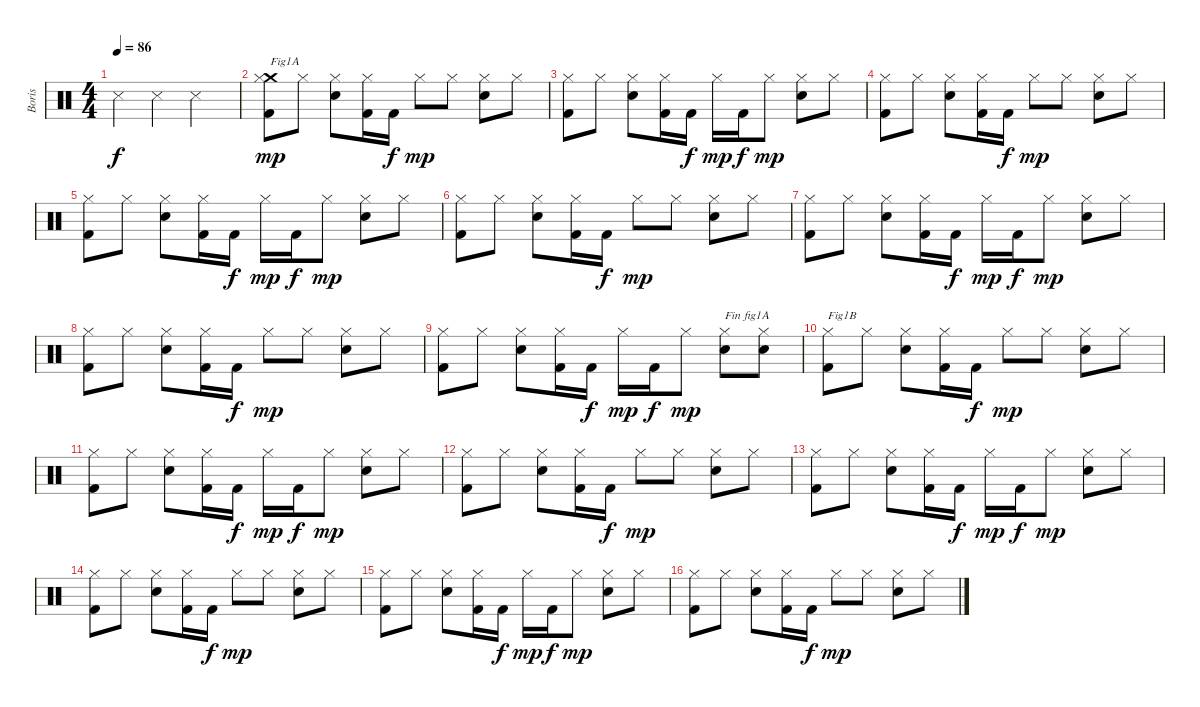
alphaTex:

\track ("Boris" "Boris") {instrument percussion}
\staff {score}
\articulation defaults
\ts (4 4)
\tempo 86
\clef neutral
\ks c "Metronome (hit)".4{dy f} "Metronome (hit)".4 "Metronome (hit)".2
|
("Kick (hit) 2" "Crash medium (hit)" "Hi-Hat (closed)").8{txt "Fig1A" dy mp} "Hi-Hat (closed)".8 ("Electric Snare (hit)" "Hi-Hat (closed)").8 ("Kick (hit) 2" "Hi-Hat (closed)").16 "Kick (hit) 2".16{dy f} "Hi-Hat (closed)".8{dy mp} "Hi-Hat (closed)".8 ("Electric Snare (hit)" "Hi-Hat (closed)").8 "Hi-Hat (closed)".8 |
("Kick (hit) 2" "Hi-Hat (closed)").8 "Hi-Hat (closed)".8 ("Electric Snare (hit)" "Hi-Hat (closed)").8 ("Kick (hit) 2" "Hi-Hat (closed)").16 "Kick (hit) 2".16{dy f} "Hi-Hat (closed)".16{dy mp} "Kick (hit) 2".16{dy f} "Hi-Hat (closed)".8{dy mp} ("Electric Snare (hit)" "Hi-Hat (closed)").8 "Hi-Hat (closed)".8 |
("Kick (hit) 2" "Hi-Hat (closed)").8 "Hi-Hat (closed)".8 ("Electric Snare (hit)" "Hi-Hat (closed)").8 ("Kick (hit) 2" "Hi-Hat (closed)").16 "Kick (hit) 2".16{dy f} "Hi-Hat (closed)".8{dy mp} "Hi-Hat (closed)".8 ("Electric Snare (hit)" "Hi-Hat (closed)").8 "Hi-Hat (closed)".8 |
("Kick (hit) 2" "Hi-Hat (closed)").8 "Hi-Hat (closed)".8 ("Electric Snare (hit)" "Hi-Hat (closed)").8 ("Kick (hit) 2" "Hi-Hat (closed)").16 "Kick (hit) 2".16{dy f} "Hi-Hat (closed)".16{dy mp} "Kick (hit) 2".16{dy f} "Hi-Hat (closed)".8{dy mp} ("Electric Snare (hit)" "Hi-Hat (closed)").8 "Hi-Hat (closed)".8 |
("Kick (hit) 2" "Hi-Hat (closed)").8 "Hi-Hat (closed)".8 ("Electric Snare (hit)" "Hi-Hat (closed)").8 ("Kick (hit) 2" "Hi-Hat (closed)").16 "Kick (hit) 2".16{dy f} "Hi-Hat (closed)".8{dy mp} "Hi-Hat (closed)".8 ("Electric Snare (hit)" "Hi-Hat (closed)").8 "Hi-Hat (closed)".8 |
("Kick (hit) 2" "Hi-Hat (closed)").8 "Hi-Hat (closed)".8 ("Electric Snare (hit)" "Hi-Hat (closed)").8 ("Kick (hit) 2" "Hi-Hat (closed)").16 "Kick (hit) 2".16{dy f} "Hi-Hat (closed)".16{dy mp} "Kick (hit) 2".16{dy f} "Hi-Hat (closed)".8{dy mp} ("Electric Snare (hit)" "Hi-Hat (closed)").8 "Hi-Hat (closed)".8 |
("Kick (hit) 2" "Hi-Hat (closed)").8 "Hi-Hat (closed)".8 ("Electric Snare (hit)" "Hi-Hat (closed)").8 ("Kick (hit) 2" "Hi-Hat (closed)").16 "Kick (hit) 2".16{dy f} "Hi-Hat (closed)".8{dy mp} "Hi-Hat (closed)".8 ("Electric Snare (hit)" "Hi-Hat (closed)").8 "Hi-Hat (closed)".8 |
("Kick (hit) 2" "Hi-Hat (closed)").8 "Hi-Hat (closed)".8 ("Electric Snare (hit)" "Hi-Hat (closed)").8 ("Kick (hit) 2" "Hi-Hat (closed)").16 "Kick (hit) 2".16{dy f} "Hi-Hat (closed)".16{dy mp} "Kick (hit) 2".16{dy f} "Hi-Hat (closed)".8{dy mp} ("Electric Snare (hit)" "Hi-Hat (closed)").8{txt "Fin fig1A"} ("Electric Snare (hit)" "Hi-Hat (closed)").8 |
("Kick (hit) 2" "Hi-Hat (closed)").8{txt "Fig1B"} "Hi-Hat (closed)".8 ("Electric Snare (hit)" "Hi-Hat (closed)").8 ("Kick (hit) 2" "Hi-Hat (closed)").16 "Kick (hit) 2".16{dy f} "Hi-Hat (closed)".8{dy mp} "Hi-Hat (closed)".8 ("Electric Snare (hit)" "Hi-Hat (closed)").8 "Hi-Hat (closed)".8 |
("Kick (hit) 2" "Hi-Hat (closed)").8 "Hi-Hat (closed)".8 ("Electric Snare (hit)" "Hi-Hat (closed)").8 ("Kick (hit) 2" "Hi-Hat (closed)").16 "Kick (hit) 2".16{dy f} "Hi-Hat (closed)".16{dy mp} "Kick (hit) 2".16{dy f} "Hi-Hat (closed)".8{dy mp} ("Electric Snare (hit)" "Hi-Hat (closed)").8 "Hi-Hat (closed)".8 |
("Kick (hit) 2" "Hi-Hat (closed)").8 "Hi-Hat (closed)".8 ("Electric Snare (hit)" "Hi-Hat (closed)").8 ("Kick (hit) 2" "Hi-Hat (closed)").16 "Kick (hit) 2".16{dy f} "Hi-Hat (closed)".8{dy mp} "Hi-Hat (closed)".8 ("Electric Snare (hit)" "Hi-Hat (closed)").8 "Hi-Hat (closed)".8 |
("Kick (hit) 2" "Hi-Hat (closed)").8 "Hi-Hat (closed)".8 ("Electric Snare (hit)" "Hi-Hat (closed)").8 ("Kick (hit) 2" "Hi-Hat (closed)").16 "Kick (hit) 2".16{dy f} "Hi-Hat (closed)".16{dy mp} "Kick (hit) 2".16{dy f} "Hi-Hat (closed)".8{dy mp} ("Electric Snare (hit)" "Hi-Hat (closed)").8 "Hi-Hat (closed)".8 |
("Kick (hit) 2" "Hi-Hat (closed)").8 "Hi-Hat (closed)".8 ("Electric Snare (hit)" "Hi-Hat (closed)").8 ("Kick (hit) 2" "Hi-Hat (closed)").16 "Kick (hit) 2".16{dy f} "Hi-Hat (closed)".8{dy mp} "Hi-Hat (closed)".8 ("Electric Snare (hit)" "Hi-Hat (closed)").8 "Hi-Hat (closed)".8 |
("Kick (hit) 2" "Hi-Hat (closed)").8 "Hi-Hat (closed)".8 ("Electric Snare (hit)" "Hi-Hat (closed)").8 ("Kick (hit) 2" "Hi-Hat (closed)").16 "Kick (hit) 2".16{dy f} "Hi-Hat (closed)".16{dy mp} "Kick (hit) 2".16{dy f} "Hi-Hat (closed)".8{dy mp} ("Electric Snare (hit)" "Hi-Hat (closed)").8 "Hi-Hat (closed)".8 |
("Kick (hit) 2" "Hi-Hat (closed)").8 "Hi-Hat (closed)".8 ("Electric Snare (hit)" "Hi-Hat (closed)").8 ("Kick (hit) 2" "Hi-Hat (closed)").16 "Kick (hit) 2".16{dy f} "Hi-Hat (closed)".8{dy mp} "Hi-Hat (closed)".8 ("Electric Snare (hit)" "Hi-Hat (closed)").8 "Hi-Hat (closed)".8
